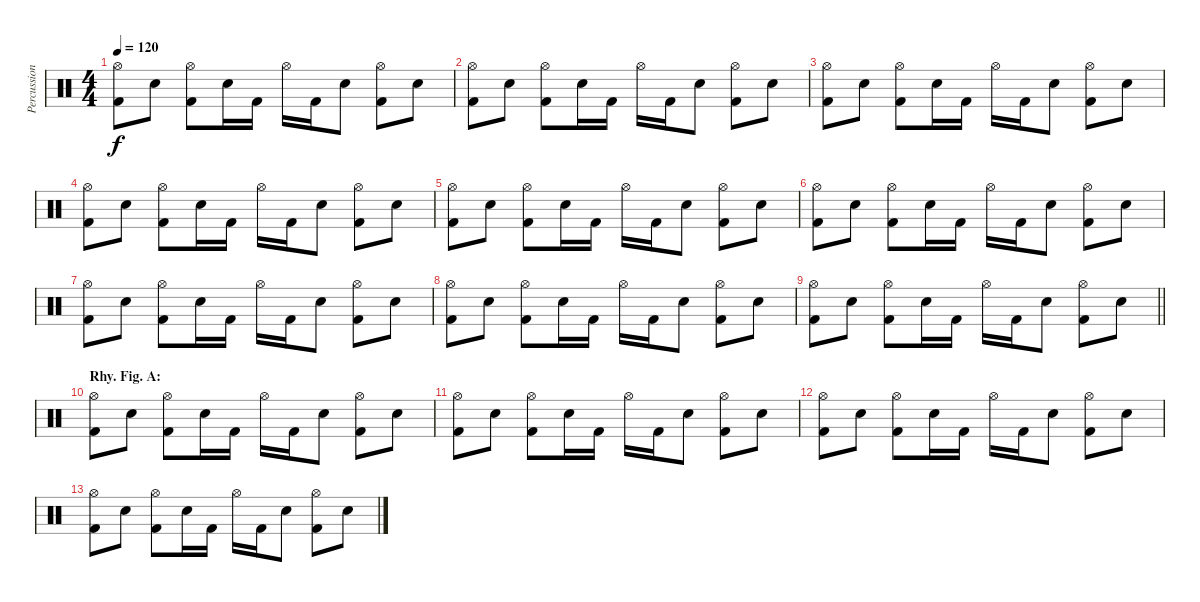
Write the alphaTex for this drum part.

\track ("Percussion" "Percussion") {instrument percussion}
\staff {score}
\articulation defaults
\ts (4 4)
\tempo 120
\clef neutral
\ks c
("Hi-Hat (open)" "Kick (hit) 2").8{dy f} "Electric Snare (hit)".8 ("Hi-Hat (open)" "Kick (hit) 2").8 "Electric Snare (hit)".16 "Kick (hit) 2".16 "Hi-Hat (open)".16 "Kick (hit) 2".16 "Electric Snare (hit)".8 ("Hi-Hat (open)" "Kick (hit) 2").8 "Electric Snare (hit)".8 |
("Hi-Hat (open)" "Kick (hit) 2").8 "Electric Snare (hit)".8 ("Hi-Hat (open)" "Kick (hit) 2").8 "Electric Snare (hit)".16 "Kick (hit) 2".16 "Hi-Hat (open)".16 "Kick (hit) 2".16 "Electric Snare (hit)".8 ("Hi-Hat (open)" "Kick (hit) 2").8 "Electric Snare (hit)".8 |
("Hi-Hat (open)" "Kick (hit) 2").8 "Electric Snare (hit)".8 ("Hi-Hat (open)" "Kick (hit) 2").8 "Electric Snare (hit)".16 "Kick (hit) 2".16 "Hi-Hat (open)".16 "Kick (hit) 2".16 "Electric Snare (hit)".8 ("Hi-Hat (open)" "Kick (hit) 2").8 "Electric Snare (hit)".8 |
("Hi-Hat (open)" "Kick (hit) 2").8 "Electric Snare (hit)".8 ("Hi-Hat (open)" "Kick (hit) 2").8 "Electric Snare (hit)".16 "Kick (hit) 2".16 "Hi-Hat (open)".16 "Kick (hit) 2".16 "Electric Snare (hit)".8 ("Hi-Hat (open)" "Kick (hit) 2").8 "Electric Snare (hit)".8 |
("Hi-Hat (open)" "Kick (hit) 2").8 "Electric Snare (hit)".8 ("Hi-Hat (open)" "Kick (hit) 2").8 "Electric Snare (hit)".16 "Kick (hit) 2".16 "Hi-Hat (open)".16 "Kick (hit) 2".16 "Electric Snare (hit)".8 ("Hi-Hat (open)" "Kick (hit) 2").8 "Electric Snare (hit)".8 |
("Hi-Hat (open)" "Kick (hit) 2").8 "Electric Snare (hit)".8 ("Hi-Hat (open)" "Kick (hit) 2").8 "Electric Snare (hit)".16 "Kick (hit) 2".16 "Hi-Hat (open)".16 "Kick (hit) 2".16 "Electric Snare (hit)".8 ("Hi-Hat (open)" "Kick (hit) 2").8 "Electric Snare (hit)".8 |
("Hi-Hat (open)" "Kick (hit) 2").8 "Electric Snare (hit)".8 ("Hi-Hat (open)" "Kick (hit) 2").8 "Electric Snare (hit)".16 "Kick (hit) 2".16 "Hi-Hat (open)".16 "Kick (hit) 2".16 "Electric Snare (hit)".8 ("Hi-Hat (open)" "Kick (hit) 2").8 "Electric Snare (hit)".8 |
("Hi-Hat (open)" "Kick (hit) 2").8 "Electric Snare (hit)".8 ("Hi-Hat (open)" "Kick (hit) 2").8 "Electric Snare (hit)".16 "Kick (hit) 2".16 "Hi-Hat (open)".16 "Kick (hit) 2".16 "Electric Snare (hit)".8 ("Hi-Hat (open)" "Kick (hit) 2").8 "Electric Snare (hit)".8 |
\barLineRight lightlight
("Hi-Hat (open)" "Kick (hit) 2").8 "Electric Snare (hit)".8 ("Hi-Hat (open)" "Kick (hit) 2").8 "Electric Snare (hit)".16 "Kick (hit) 2".16 "Hi-Hat (open)".16 "Kick (hit) 2".16 "Electric Snare (hit)".8 ("Hi-Hat (open)" "Kick (hit) 2").8 "Electric Snare (hit)".8 |
\section ("" "Rhy. Fig. A:")
("Hi-Hat (open)" "Kick (hit) 2").8 "Electric Snare (hit)".8 ("Hi-Hat (open)" "Kick (hit) 2").8 "Electric Snare (hit)".16 "Kick (hit) 2".16 "Hi-Hat (open)".16 "Kick (hit) 2".16 "Electric Snare (hit)".8 ("Hi-Hat (open)" "Kick (hit) 2").8 "Electric Snare (hit)".8 |
("Hi-Hat (open)" "Kick (hit) 2").8 "Electric Snare (hit)".8 ("Hi-Hat (open)" "Kick (hit) 2").8 "Electric Snare (hit)".16 "Kick (hit) 2".16 "Hi-Hat (open)".16 "Kick (hit) 2".16 "Electric Snare (hit)".8 ("Hi-Hat (open)" "Kick (hit) 2").8 "Electric Snare (hit)".8 |
("Hi-Hat (open)" "Kick (hit) 2").8 "Electric Snare (hit)".8 ("Hi-Hat (open)" "Kick (hit) 2").8 "Electric Snare (hit)".16 "Kick (hit) 2".16 "Hi-Hat (open)".16 "Kick (hit) 2".16 "Electric Snare (hit)".8 ("Hi-Hat (open)" "Kick (hit) 2").8 "Electric Snare (hit)".8 |
("Hi-Hat (open)" "Kick (hit) 2").8 "Electric Snare (hit)".8 ("Hi-Hat (open)" "Kick (hit) 2").8 "Electric Snare (hit)".16 "Kick (hit) 2".16 "Hi-Hat (open)".16 "Kick (hit) 2".16 "Electric Snare (hit)".8 ("Hi-Hat (open)" "Kick (hit) 2").8 "Electric Snare (hit)".8
